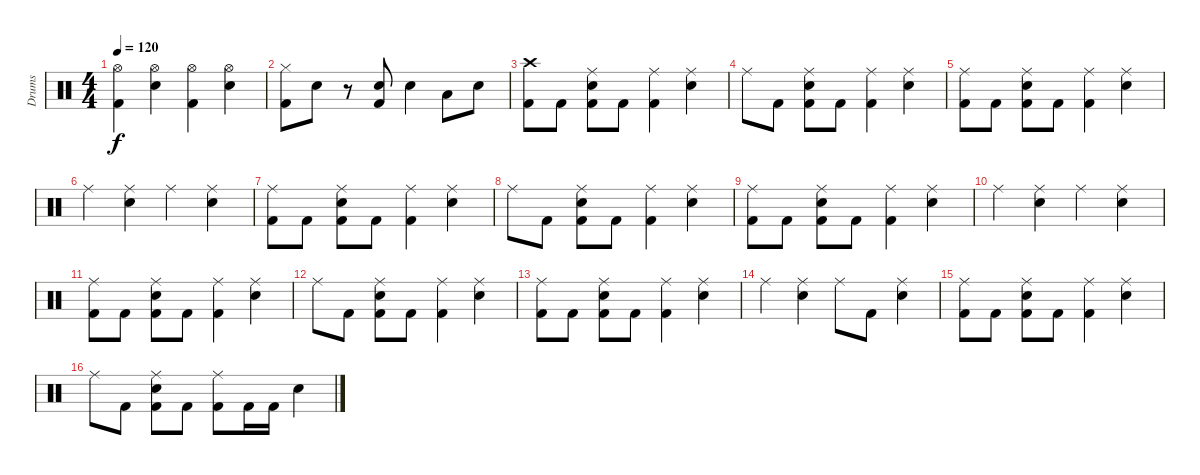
\track ("Drums" "Drums") {instrument percussion}
\staff {score}
\articulation defaults
\ts (4 4)
\tempo 120
\clef neutral
\ks c
("Hi-Hat (open)" "Kick (hit) 2").4{dy f} ("Hi-Hat (open)" "Electric Snare (hit)").4 ("Hi-Hat (open)" "Kick (hit) 2").4 ("Hi-Hat (open)" "Electric Snare (hit)").4 |
("Hi-Hat (closed)" "Kick (hit) 2").8 "Electric Snare (hit)".8 r.8 ("Electric Snare (hit)" "Kick (hit) 2").8 "Electric Snare (hit)".4 "Low Tom (hit)".8 "Electric Snare (hit)".8 |
("Crash high (hit)" "Kick (hit) 2").8 "Kick (hit) 2".8 ("Ride (middle)" "Electric Snare (hit)" "Kick (hit) 2").8 "Kick (hit) 2".8 ("Ride (middle)" "Kick (hit) 2").4 ("Ride (middle)" "Electric Snare (hit)").4 |
"Ride (middle)".8 "Kick (hit) 2".8 ("Ride (middle)" "Electric Snare (hit)" "Kick (hit) 2").8 "Kick (hit) 2".8 ("Ride (middle)" "Kick (hit) 2").4 ("Ride (middle)" "Electric Snare (hit)").4 |
("Ride (middle)" "Kick (hit) 2").8 "Kick (hit) 2".8 ("Ride (middle)" "Electric Snare (hit)" "Kick (hit) 2").8 "Kick (hit) 2".8 ("Ride (middle)" "Kick (hit) 2").4 ("Ride (middle)" "Electric Snare (hit)").4 |
"Ride (middle)".4 ("Ride (middle)" "Electric Snare (hit)").4 "Ride (middle)".4 ("Ride (middle)" "Electric Snare (hit)").4 |
("Ride (middle)" "Kick (hit) 2").8 "Kick (hit) 2".8 ("Ride (middle)" "Electric Snare (hit)" "Kick (hit) 2").8 "Kick (hit) 2".8 ("Ride (middle)" "Kick (hit) 2").4 ("Ride (middle)" "Electric Snare (hit)").4 |
"Ride (middle)".8 "Kick (hit) 2".8 ("Ride (middle)" "Electric Snare (hit)" "Kick (hit) 2").8 "Kick (hit) 2".8 ("Ride (middle)" "Kick (hit) 2").4 ("Ride (middle)" "Electric Snare (hit)").4 |
("Ride (middle)" "Kick (hit) 2").8 "Kick (hit) 2".8 ("Ride (middle)" "Electric Snare (hit)" "Kick (hit) 2").8 "Kick (hit) 2".8 ("Ride (middle)" "Kick (hit) 2").4 ("Ride (middle)" "Electric Snare (hit)").4 |
"Ride (middle)".4 ("Ride (middle)" "Electric Snare (hit)").4 "Ride (middle)".4 ("Ride (middle)" "Electric Snare (hit)").4 |
("Ride (middle)" "Kick (hit) 2").8 "Kick (hit) 2".8 ("Ride (middle)" "Electric Snare (hit)" "Kick (hit) 2").8 "Kick (hit) 2".8 ("Ride (middle)" "Kick (hit) 2").4 ("Ride (middle)" "Electric Snare (hit)").4 |
"Ride (middle)".8 "Kick (hit) 2".8 ("Ride (middle)" "Electric Snare (hit)" "Kick (hit) 2").8 "Kick (hit) 2".8 ("Ride (middle)" "Kick (hit) 2").4 ("Ride (middle)" "Electric Snare (hit)").4 |
("Ride (middle)" "Kick (hit) 2").8 "Kick (hit) 2".8 ("Ride (middle)" "Electric Snare (hit)" "Kick (hit) 2").8 "Kick (hit) 2".8 ("Ride (middle)" "Kick (hit) 2").4 ("Ride (middle)" "Electric Snare (hit)").4 |
"Ride (middle)".4 ("Ride (middle)" "Electric Snare (hit)").4 "Ride (middle)".8 "Kick (hit) 2".8 ("Ride (middle)" "Electric Snare (hit)").4 |
("Ride (middle)" "Kick (hit) 2").8 "Kick (hit) 2".8 ("Ride (middle)" "Electric Snare (hit)" "Kick (hit) 2").8 "Kick (hit) 2".8 ("Ride (middle)" "Kick (hit) 2").4 ("Ride (middle)" "Electric Snare (hit)").4 |
"Ride (middle)".8 "Kick (hit) 2".8 ("Ride (middle)" "Electric Snare (hit)" "Kick (hit) 2").8 "Kick (hit) 2".8 ("Ride (middle)" "Kick (hit) 2").8 "Kick (hit) 2".16 "Kick (hit) 2".16 "Electric Snare (hit)".4
